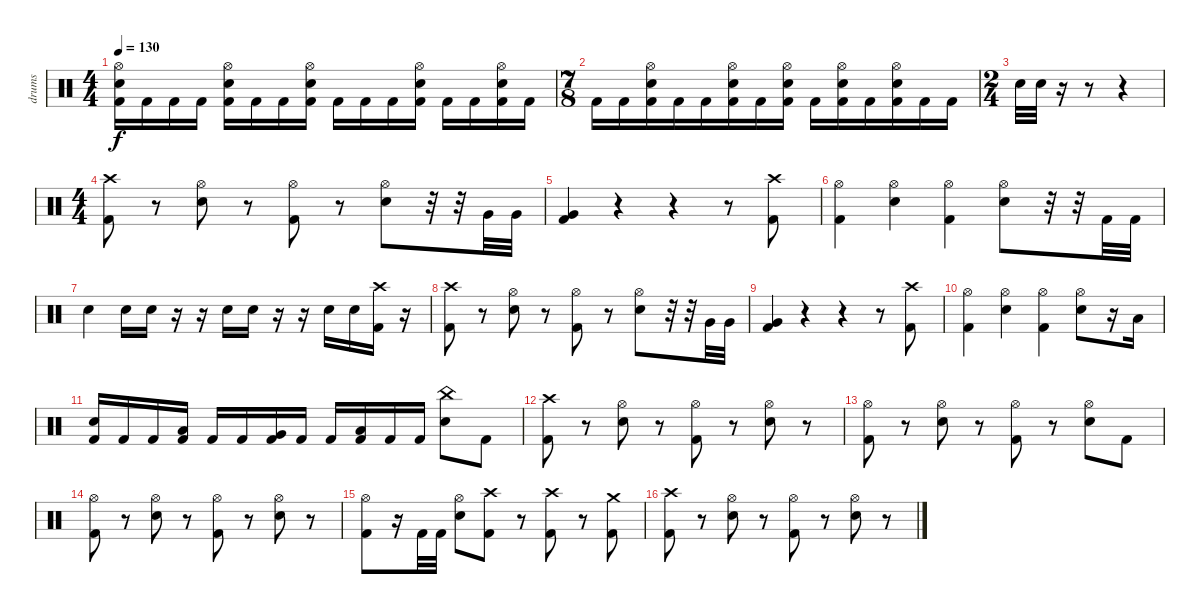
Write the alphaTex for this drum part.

\track ("drums" "drums") {instrument percussion}
\staff {score}
\articulation defaults
\ts (4 4)
\tempo 130
\clef neutral
\ks c
("Hi-Hat (open)" "Snare (hit) 2" "Kick (hit) 2").16{dy f} "Kick (hit) 2".16 "Kick (hit) 2".16 "Kick (hit) 2".16 ("Hi-Hat (open)" "Snare (hit) 2" "Kick (hit) 2").16 "Kick (hit) 2".16 "Kick (hit) 2".16 ("Hi-Hat (open)" "Snare (hit) 2" "Kick (hit) 2").16 "Kick (hit) 2".16 "Kick (hit) 2".16 "Kick (hit) 2".16 ("Hi-Hat (open)" "Snare (hit) 2" "Kick (hit) 2").16 "Kick (hit) 2".16 "Kick (hit) 2".16 ("Hi-Hat (open)" "Snare (hit) 2" "Kick (hit) 2").16 "Kick (hit) 2".16 |
\ts (7 8)
"Kick (hit) 2".16 "Kick (hit) 2".16 ("Hi-Hat (open)" "Snare (hit) 2" "Kick (hit) 2").16 "Kick (hit) 2".16 "Kick (hit) 2".16 ("Hi-Hat (open)" "Kick (hit) 2" "Snare (hit) 2").16 "Kick (hit) 2".16 ("Hi-Hat (open)" "Kick (hit) 2" "Snare (hit) 2").16 "Kick (hit) 2".16 ("Hi-Hat (open)" "Kick (hit) 2" "Snare (hit) 2").16 "Kick (hit) 2".16 ("Hi-Hat (open)" "Kick (hit) 2" "Snare (hit) 2").16 "Kick (hit) 2".16 "Kick (hit) 2".16 |
\ts (2 4)
"Snare (hit) 2".32 "Snare (hit) 2".32 r.16 r.8 r.4 |
\ts (4 4)
("Crash high (hit)" "Kick (hit) 2").8 r.8 ("Hi-Hat (open)" "Snare (hit) 2").8 r.8 ("Hi-Hat (open)" "Kick (hit) 2").8 r.8 ("Hi-Hat (open)" "Snare (hit) 2").8 r.32 r.32 "Very Low Tom (hit)".32 "Very Low Tom (hit)".32 |
("Kick (hit) 2" "Very Low Tom (hit)").4 r.4 r.4 r.8 ("Crash high (hit)" "Kick (hit) 2").8 |
("Hi-Hat (open)" "Kick (hit) 2").4 ("Hi-Hat (open)" "Snare (hit) 2").4 ("Hi-Hat (open)" "Kick (hit) 2").4 ("Hi-Hat (open)" "Snare (hit) 2").8 r.32 r.32 "Kick (hit) 2".32 "Kick (hit) 2".32 |
"Snare (hit) 2".4 "Snare (hit) 2".16 "Snare (hit) 2".16 r.16 r.16 "Snare (hit) 2".16 "Snare (hit) 2".16 r.16 r.16 "Snare (hit) 2".16 "Snare (hit) 2".16 ("Crash high (hit)" "Kick (hit) 2").16 r.16 |
("Crash high (hit)" "Kick (hit) 2").8 r.8 ("Hi-Hat (open)" "Snare (hit) 2").8 r.8 ("Hi-Hat (open)" "Kick (hit) 2").8 r.8 ("Hi-Hat (open)" "Snare (hit) 2").8 r.32 r.32 "Very Low Tom (hit)".32 "Very Low Tom (hit)".32 |
("Kick (hit) 2" "Very Low Tom (hit)").4 r.4 r.4 r.8 ("Crash high (hit)" "Kick (hit) 2").8 |
("Hi-Hat (open)" "Kick (hit) 2").4 ("Hi-Hat (open)" "Snare (hit) 2").4 ("Hi-Hat (open)" "Kick (hit) 2").4 ("Hi-Hat (open)" "Snare (hit) 2").8 r.16 "Low Tom (hit)".16 |
("Snare (hit) 2" "Kick (hit) 2").16 "Kick (hit) 2".16 "Kick (hit) 2".16 ("Low Tom (hit)" "Kick (hit) 2").16 "Kick (hit) 2".16 "Kick (hit) 2".16 ("Very Low Tom (hit)" "Kick (hit) 2").16 "Kick (hit) 2".16 "Kick (hit) 2".16 ("Low Floor Tom (hit)" "Kick (hit) 2").16 "Kick (hit) 2".16 "Kick (hit) 2".16 ("China (hit)" "Snare (hit) 2").8 "Kick (hit) 2".8 |
("Crash high (hit)" "Kick (hit) 2").8 r.8 ("Hi-Hat (open)" "Snare (hit) 2").8 r.8 ("Hi-Hat (open)" "Kick (hit) 2").8 r.8 ("Hi-Hat (open)" "Snare (hit) 2").8 r.8 |
("Hi-Hat (open)" "Kick (hit) 2").8 r.8 ("Hi-Hat (open)" "Snare (hit) 2").8 r.8 ("Hi-Hat (open)" "Kick (hit) 2").8 r.8 ("Hi-Hat (open)" "Snare (hit) 2").8 "Kick (hit) 2".8 |
("Hi-Hat (open)" "Kick (hit) 2").8 r.8 ("Hi-Hat (open)" "Snare (hit) 2").8 r.8 ("Hi-Hat (open)" "Kick (hit) 2").8 r.8 ("Hi-Hat (open)" "Snare (hit) 2").8 r.8 |
("Hi-Hat (open)" "Kick (hit) 2").8 r.16 "Kick (hit) 2".32 "Kick (hit) 2".32 ("Hi-Hat (open)" "Snare (hit) 2").8 ("Crash high (hit)" "Kick (hit) 2").8 r.8 ("Crash high (hit)" "Kick (hit) 2").8 r.8 ("Crash medium (hit)" "Kick (hit) 2").8 |
("Crash high (hit)" "Kick (hit) 2").8 r.8 ("Hi-Hat (open)" "Snare (hit) 2").8 r.8 ("Hi-Hat (open)" "Kick (hit) 2").8 r.8 ("Hi-Hat (open)" "Snare (hit) 2").8 r.8
